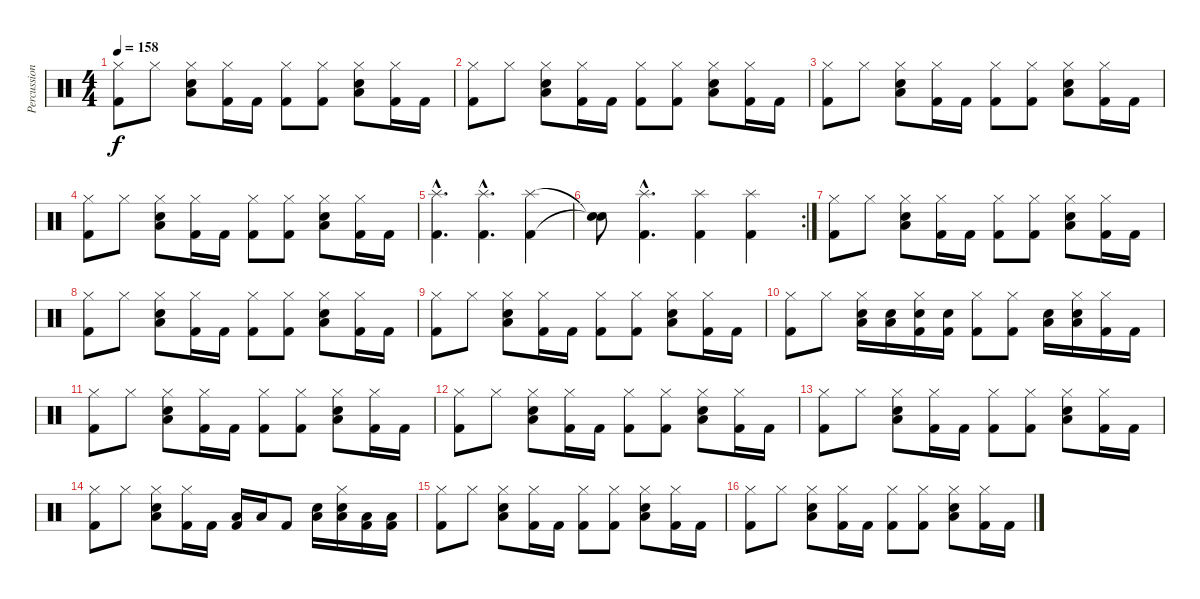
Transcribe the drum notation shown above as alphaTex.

\track ("Percussion" "Percussion") {instrument percussion}
\staff {score}
\articulation defaults
\ts (4 4)
\tempo 158
\clef neutral
\ks c
("Hi-Hat (closed)" "Kick (hit) 2").8{dy f} "Hi-Hat (closed)".8 ("Hi-Hat (closed)" "Low Tom (hit)" "Snare (hit) 2").8 ("Hi-Hat (closed)" "Kick (hit) 2").16 "Kick (hit) 2".16 ("Kick (hit) 2" "Hi-Hat (closed)").8 ("Kick (hit) 2" "Hi-Hat (closed)").8 ("Snare (hit) 2" "Low Tom (hit)" "Hi-Hat (closed)").8 ("Kick (hit) 2" "Hi-Hat (closed)").16 "Kick (hit) 2".16 |
("Hi-Hat (closed)" "Kick (hit) 2").8 "Hi-Hat (closed)".8 ("Hi-Hat (closed)" "Low Tom (hit)" "Snare (hit) 2").8 ("Hi-Hat (closed)" "Kick (hit) 2").16 "Kick (hit) 2".16 ("Kick (hit) 2" "Hi-Hat (closed)").8 ("Kick (hit) 2" "Hi-Hat (closed)").8 ("Snare (hit) 2" "Low Tom (hit)" "Hi-Hat (closed)").8 ("Kick (hit) 2" "Hi-Hat (closed)").16 "Kick (hit) 2".16 |
("Hi-Hat (closed)" "Kick (hit) 2").8 "Hi-Hat (closed)".8 ("Hi-Hat (closed)" "Low Tom (hit)" "Snare (hit) 2").8 ("Hi-Hat (closed)" "Kick (hit) 2").16 "Kick (hit) 2".16 ("Kick (hit) 2" "Hi-Hat (closed)").8 ("Kick (hit) 2" "Hi-Hat (closed)").8 ("Snare (hit) 2" "Low Tom (hit)" "Hi-Hat (closed)").8 ("Kick (hit) 2" "Hi-Hat (closed)").16 "Kick (hit) 2".16 |
("Hi-Hat (closed)" "Kick (hit) 2").8 "Hi-Hat (closed)".8 ("Hi-Hat (closed)" "Low Tom (hit)" "Snare (hit) 2").8 ("Hi-Hat (closed)" "Kick (hit) 2").16 "Kick (hit) 2".16 ("Kick (hit) 2" "Hi-Hat (closed)").8 ("Kick (hit) 2" "Hi-Hat (closed)").8 ("Snare (hit) 2" "Low Tom (hit)" "Hi-Hat (closed)").8 ("Kick (hit) 2" "Hi-Hat (closed)").16 "Kick (hit) 2".16 |
("Splash (hit)"{hac} "Kick (hit) 2"{hac}).4{d} ("Splash (hit)"{hac} "Kick (hit) 2"{hac}).4{d} ("Splash (hit)" "Kick (hit) 2").4 |
\rc 2
("Snare (hit)"{t} "Snare (hit)"{t}).8 ("Splash (hit)"{hac} "Kick (hit) 2"{hac}).4{d} ("Splash (hit)" "Kick (hit) 2").4 ("Splash (hit)" "Kick (hit) 2").4 |
("Hi-Hat (closed)" "Kick (hit) 2").8 "Hi-Hat (closed)".8 ("Hi-Hat (closed)" "Low Tom (hit)" "Snare (hit) 2").8 ("Hi-Hat (closed)" "Kick (hit) 2").16 "Kick (hit) 2".16 ("Kick (hit) 2" "Hi-Hat (closed)").8 ("Kick (hit) 2" "Hi-Hat (closed)").8 ("Snare (hit) 2" "Low Tom (hit)" "Hi-Hat (closed)").8 ("Kick (hit) 2" "Hi-Hat (closed)").16 "Kick (hit) 2".16 |
("Hi-Hat (closed)" "Kick (hit) 2").8 "Hi-Hat (closed)".8 ("Hi-Hat (closed)" "Low Tom (hit)" "Snare (hit) 2").8 ("Hi-Hat (closed)" "Kick (hit) 2").16 "Kick (hit) 2".16 ("Kick (hit) 2" "Hi-Hat (closed)").8 ("Kick (hit) 2" "Hi-Hat (closed)").8 ("Snare (hit) 2" "Low Tom (hit)" "Hi-Hat (closed)").8 ("Kick (hit) 2" "Hi-Hat (closed)").16 "Kick (hit) 2".16 |
("Hi-Hat (closed)" "Kick (hit) 2").8 "Hi-Hat (closed)".8 ("Hi-Hat (closed)" "Low Tom (hit)" "Snare (hit) 2").8 ("Hi-Hat (closed)" "Kick (hit) 2").16 "Kick (hit) 2".16 ("Kick (hit) 2" "Hi-Hat (closed)").8 ("Kick (hit) 2" "Hi-Hat (closed)").8 ("Snare (hit) 2" "Low Tom (hit)" "Hi-Hat (closed)").8 ("Kick (hit) 2" "Hi-Hat (closed)").16 "Kick (hit) 2".16 |
("Hi-Hat (closed)" "Kick (hit) 2").8 "Hi-Hat (closed)".8 ("Hi-Hat (closed)" "Low Tom (hit)" "Snare (hit) 2").16 ("Low Tom (hit)" "Snare (hit) 2").16 ("Hi-Hat (closed)" "Kick (hit) 2" "Snare (hit) 2").16 ("Kick (hit) 2" "Snare (hit) 2").16 ("Kick (hit) 2" "Hi-Hat (closed)").8 ("Kick (hit) 2" "Hi-Hat (closed)").8 ("Snare (hit) 2" "Low Tom (hit)").16 ("Snare (hit) 2" "Low Tom (hit)" "Hi-Hat (closed)").16 ("Kick (hit) 2" "Hi-Hat (closed)").16 "Kick (hit) 2".16 |
("Hi-Hat (closed)" "Kick (hit) 2").8 "Hi-Hat (closed)".8 ("Hi-Hat (closed)" "Low Tom (hit)" "Snare (hit) 2").8 ("Hi-Hat (closed)" "Kick (hit) 2").16 "Kick (hit) 2".16 ("Kick (hit) 2" "Hi-Hat (closed)").8 ("Kick (hit) 2" "Hi-Hat (closed)").8 ("Snare (hit) 2" "Low Tom (hit)" "Hi-Hat (closed)").8 ("Kick (hit) 2" "Hi-Hat (closed)").16 "Kick (hit) 2".16 |
("Hi-Hat (closed)" "Kick (hit) 2").8 "Hi-Hat (closed)".8 ("Hi-Hat (closed)" "Low Tom (hit)" "Snare (hit) 2").8 ("Hi-Hat (closed)" "Kick (hit) 2").16 "Kick (hit) 2".16 ("Kick (hit) 2" "Hi-Hat (closed)").8 ("Kick (hit) 2" "Hi-Hat (closed)").8 ("Snare (hit) 2" "Low Tom (hit)" "Hi-Hat (closed)").8 ("Kick (hit) 2" "Hi-Hat (closed)").16 "Kick (hit) 2".16 |
("Hi-Hat (closed)" "Kick (hit) 2").8 "Hi-Hat (closed)".8 ("Hi-Hat (closed)" "Low Tom (hit)" "Snare (hit) 2").8 ("Hi-Hat (closed)" "Kick (hit) 2").16 "Kick (hit) 2".16 ("Kick (hit) 2" "Hi-Hat (closed)").8 ("Kick (hit) 2" "Hi-Hat (closed)").8 ("Snare (hit) 2" "Low Tom (hit)" "Hi-Hat (closed)").8 ("Kick (hit) 2" "Hi-Hat (closed)").16 "Kick (hit) 2".16 |
("Hi-Hat (closed)" "Kick (hit) 2").8 "Hi-Hat (closed)".8 ("Hi-Hat (closed)" "Low Tom (hit)" "Snare (hit) 2").8 ("Hi-Hat (closed)" "Kick (hit) 2").16 "Kick (hit) 2".16 ("Kick (hit) 2" "Low Tom (hit)").16 "Low Tom (hit)".16 "Kick (hit) 2".8 ("Snare (hit) 2" "Low Tom (hit)").16 ("Snare (hit) 2" "Low Tom (hit)" "Hi-Hat (closed)").16 ("Kick (hit) 2" "Low Tom (hit)").16 ("Kick (hit) 2" "Low Tom (hit)").16 |
("Hi-Hat (closed)" "Kick (hit) 2").8 "Hi-Hat (closed)".8 ("Hi-Hat (closed)" "Low Tom (hit)" "Snare (hit) 2").8 ("Hi-Hat (closed)" "Kick (hit) 2").16 "Kick (hit) 2".16 ("Kick (hit) 2" "Hi-Hat (closed)").8 ("Kick (hit) 2" "Hi-Hat (closed)").8 ("Snare (hit) 2" "Low Tom (hit)" "Hi-Hat (closed)").8 ("Kick (hit) 2" "Hi-Hat (closed)").16 "Kick (hit) 2".16 |
("Hi-Hat (closed)" "Kick (hit) 2").8 "Hi-Hat (closed)".8 ("Hi-Hat (closed)" "Low Tom (hit)" "Snare (hit) 2").8 ("Hi-Hat (closed)" "Kick (hit) 2").16 "Kick (hit) 2".16 ("Kick (hit) 2" "Hi-Hat (closed)").8 ("Kick (hit) 2" "Hi-Hat (closed)").8 ("Snare (hit) 2" "Low Tom (hit)" "Hi-Hat (closed)").8 ("Kick (hit) 2" "Hi-Hat (closed)").16 "Kick (hit) 2".16
